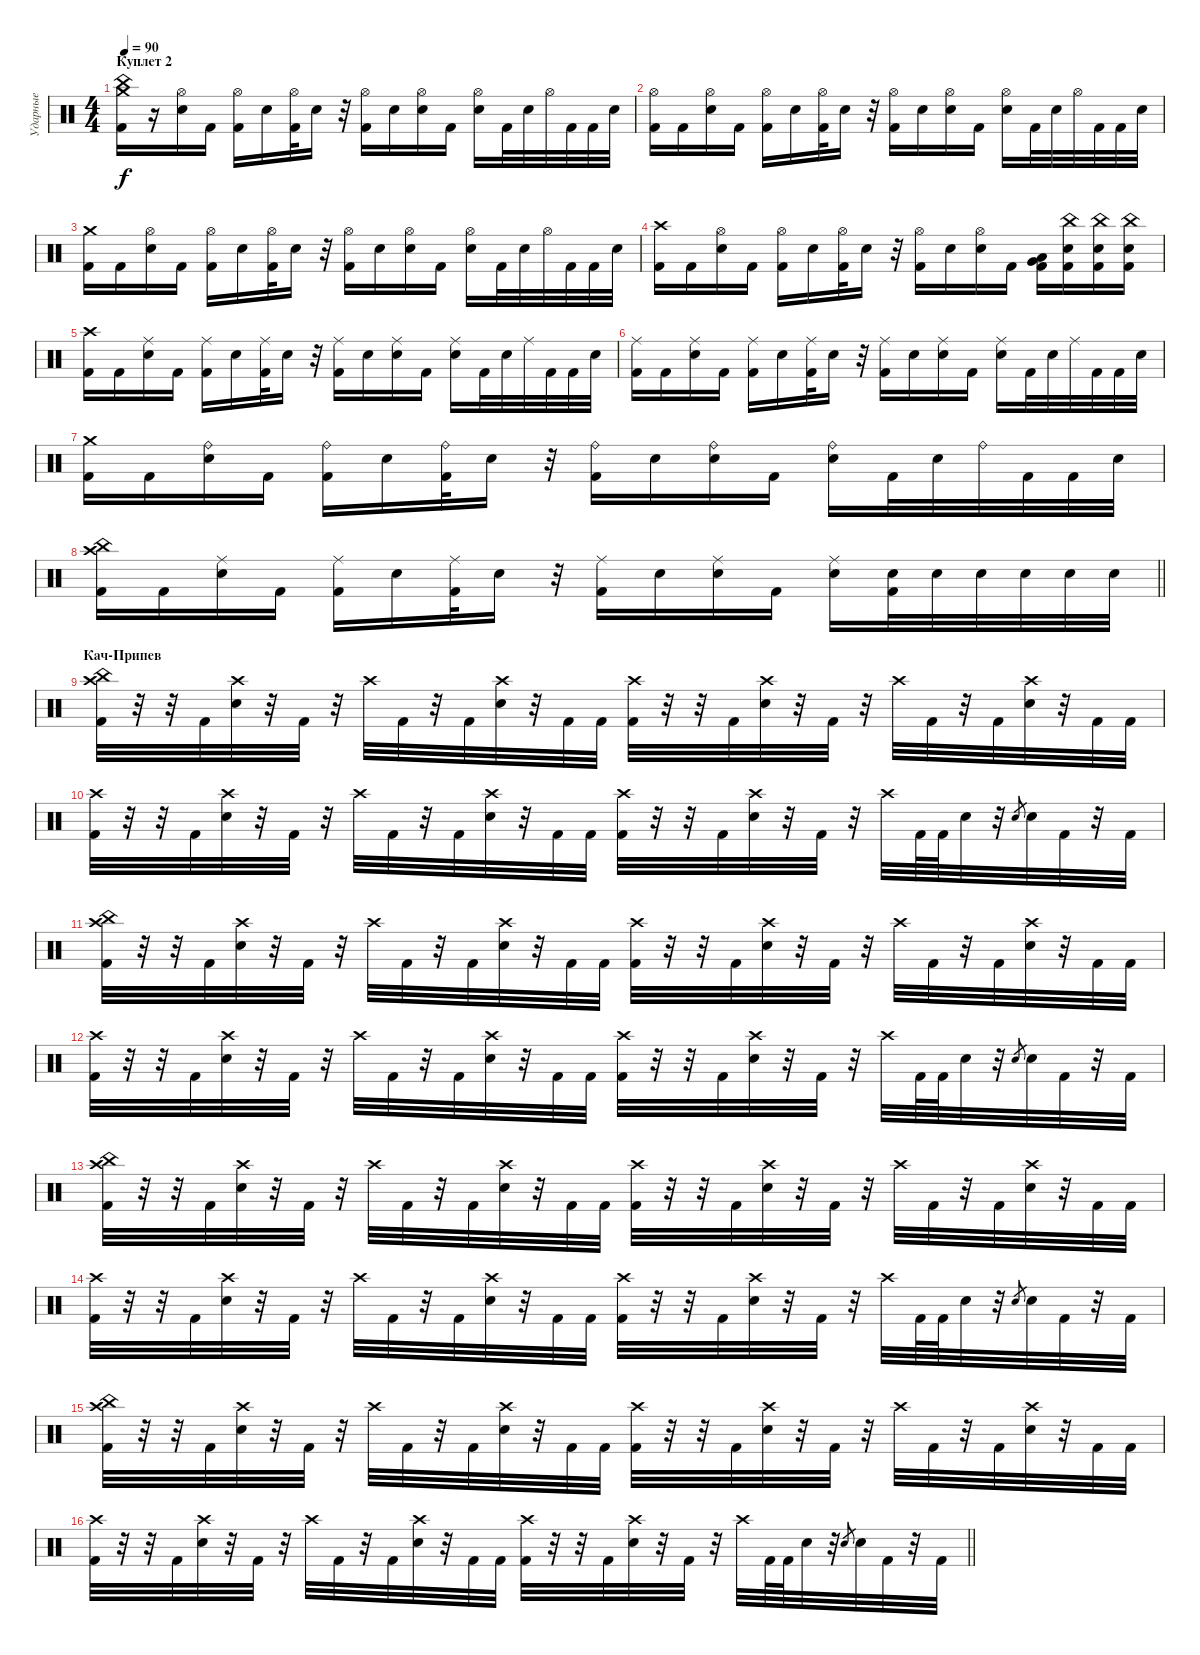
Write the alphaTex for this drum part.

\track ("Ударные" "Ударные") {instrument percussion}
\staff {score}
\articulation defaults
\ts (4 4)
\section ("" "Куплет 2")
\tempo 90
\clef neutral
\ks c
("Crash medium (hit)" "China (hit)" "Kick (hit) 2").16{dy f} r.16 ("Hi-Hat (open)" "Electric Snare (hit)").16 "Kick (hit) 2".16 ("Hi-Hat (open)" "Kick (hit) 2").16 "Electric Snare (hit)".16 ("Hi-Hat (open)" "Kick (hit) 2").32 "Electric Snare (hit)".16 r.32 ("Hi-Hat (open)" "Kick (hit) 2").16 "Electric Snare (hit)".16 ("Hi-Hat (open)" "Electric Snare (hit)").16 "Kick (hit) 2".16 ("Hi-Hat (open)" "Electric Snare (hit)").16 "Kick (hit) 2".32 "Electric Snare (hit)".32 "Hi-Hat (open)".32 "Kick (hit) 2".32 "Kick (hit) 2".32 "Electric Snare (hit)".32 |
("Hi-Hat (open)" "Kick (hit) 2").16 "Kick (hit) 2".16 ("Hi-Hat (open)" "Electric Snare (hit)").16 "Kick (hit) 2".16 ("Hi-Hat (open)" "Kick (hit) 2").16 "Electric Snare (hit)".16 ("Hi-Hat (open)" "Kick (hit) 2").32 "Electric Snare (hit)".16 r.32 ("Hi-Hat (open)" "Kick (hit) 2").16 "Electric Snare (hit)".16 ("Hi-Hat (open)" "Electric Snare (hit)").16 "Kick (hit) 2".16 ("Hi-Hat (open)" "Electric Snare (hit)").16 "Kick (hit) 2".32 "Electric Snare (hit)".32 "Hi-Hat (open)".32 "Kick (hit) 2".32 "Kick (hit) 2".32 "Electric Snare (hit)".32 |
("Crash medium (hit)" "Kick (hit) 2").16 "Kick (hit) 2".16 ("Hi-Hat (open)" "Electric Snare (hit)").16 "Kick (hit) 2".16 ("Hi-Hat (open)" "Kick (hit) 2").16 "Electric Snare (hit)".16 ("Hi-Hat (open)" "Kick (hit) 2").32 "Electric Snare (hit)".16 r.32 ("Hi-Hat (open)" "Kick (hit) 2").16 "Electric Snare (hit)".16 ("Hi-Hat (open)" "Electric Snare (hit)").16 "Kick (hit) 2".16 ("Hi-Hat (open)" "Electric Snare (hit)").16 "Kick (hit) 2".32 "Electric Snare (hit)".32 "Hi-Hat (open)".32 "Kick (hit) 2".32 "Kick (hit) 2".32 "Electric Snare (hit)".32 |
("Crash high (hit)" "Kick (hit) 2").16 "Kick (hit) 2".16 ("Hi-Hat (open)" "Electric Snare (hit)").16 "Kick (hit) 2".16 ("Hi-Hat (open)" "Kick (hit) 2").16 "Electric Snare (hit)".16 ("Hi-Hat (open)" "Kick (hit) 2").32 "Electric Snare (hit)".16 r.32 ("Hi-Hat (open)" "Kick (hit) 2").16 "Electric Snare (hit)".16 ("Hi-Hat (open)" "Electric Snare (hit)").16 "Kick (hit) 2".16 ("Low Tom (hit)" "Very Low Tom (hit)" "Kick (hit) 2").16 ("China (hit)" "Electric Snare (hit)" "Kick (hit) 2").16 ("China (hit)" "Electric Snare (hit)" "Kick (hit) 2").16 ("China (hit)" "Electric Snare (hit)" "Kick (hit) 2").16 |
("Crash high (hit)" "Kick (hit) 2").16 "Kick (hit) 2".16 ("Ride (middle)" "Electric Snare (hit)").16 "Kick (hit) 2".16 ("Ride (middle)" "Kick (hit) 2").16 "Electric Snare (hit)".16 ("Ride (middle)" "Kick (hit) 2").32 "Electric Snare (hit)".16 r.32 ("Ride (middle)" "Kick (hit) 2").16 "Electric Snare (hit)".16 ("Ride (middle)" "Electric Snare (hit)").16 "Kick (hit) 2".16 ("Ride (middle)" "Electric Snare (hit)").16 "Kick (hit) 2".32 "Electric Snare (hit)".32 "Ride (middle)".32 "Kick (hit) 2".32 "Kick (hit) 2".32 "Electric Snare (hit)".32 |
("Ride (middle)" "Kick (hit) 2").16 "Kick (hit) 2".16 ("Ride (middle)" "Electric Snare (hit)").16 "Kick (hit) 2".16 ("Ride (middle)" "Kick (hit) 2").16 "Electric Snare (hit)".16 ("Ride (middle)" "Kick (hit) 2").32 "Electric Snare (hit)".16 r.32 ("Ride (middle)" "Kick (hit) 2").16 "Electric Snare (hit)".16 ("Ride (middle)" "Electric Snare (hit)").16 "Kick (hit) 2".16 ("Ride (middle)" "Electric Snare (hit)").16 "Kick (hit) 2".32 "Electric Snare (hit)".32 "Ride (middle)".32 "Kick (hit) 2".32 "Kick (hit) 2".32 "Electric Snare (hit)".32 |
("Crash medium (hit)" "Kick (hit) 2").16 "Kick (hit) 2".16 ("Ride (bell)" "Electric Snare (hit)").16 "Kick (hit) 2".16 ("Ride (bell)" "Kick (hit) 2").16 "Electric Snare (hit)".16 ("Ride (bell)" "Kick (hit) 2").32 "Electric Snare (hit)".16 r.32 ("Ride (bell)" "Kick (hit) 2").16 "Electric Snare (hit)".16 ("Ride (bell)" "Electric Snare (hit)").16 "Kick (hit) 2".16 ("Ride (bell)" "Electric Snare (hit)").16 "Kick (hit) 2".32 "Electric Snare (hit)".32 "Ride (bell)".32 "Kick (hit) 2".32 "Kick (hit) 2".32 "Electric Snare (hit)".32 |
\barLineRight lightlight
("Crash high (hit)" "China (hit)" "Kick (hit) 2").16 "Kick (hit) 2".16 ("Ride (middle)" "Electric Snare (hit)").16 "Kick (hit) 2".16 ("Ride (middle)" "Kick (hit) 2").16 "Electric Snare (hit)".16 ("Ride (middle)" "Kick (hit) 2").32 "Electric Snare (hit)".16 r.32 ("Ride (middle)" "Kick (hit) 2").16 "Electric Snare (hit)".16 ("Ride (middle)" "Electric Snare (hit)").16 "Kick (hit) 2".16 ("Ride (middle)" "Electric Snare (hit)").16 ("Electric Snare (hit)" "Kick (hit) 2").32 "Electric Snare (hit)".32 "Electric Snare (hit)".32 "Electric Snare (hit)".32 "Electric Snare (hit)".32 "Electric Snare (hit)".32 |
\section ("" "Кач-Припев")
("China (hit)" "Crash high (hit)" "Kick (hit) 2").32 r.32 r.32 "Kick (hit) 2".32 ("Crash high (hit)" "Electric Snare (hit)").32 r.32 "Kick (hit) 2".32 r.32 "Crash high (hit)".32 "Kick (hit) 2".32 r.32 "Kick (hit) 2".32 ("Crash high (hit)" "Electric Snare (hit)").32 r.32 "Kick (hit) 2".32 "Kick (hit) 2".32 ("Crash high (hit)" "Kick (hit) 2").32 r.32 r.32 "Kick (hit) 2".32 ("Crash high (hit)" "Electric Snare (hit)").32 r.32 "Kick (hit) 2".32 r.32 "Crash high (hit)".32 "Kick (hit) 2".32 r.32 "Kick (hit) 2".32 ("Crash high (hit)" "Electric Snare (hit)").32 r.32 "Kick (hit) 2".32 "Kick (hit) 2".32 |
("Crash high (hit)" "Kick (hit) 2").32 r.32 r.32 "Kick (hit) 2".32 ("Crash high (hit)" "Electric Snare (hit)").32 r.32 "Kick (hit) 2".32 r.32 "Crash high (hit)".32 "Kick (hit) 2".32 r.32 "Kick (hit) 2".32 ("Crash high (hit)" "Electric Snare (hit)").32 r.32 "Kick (hit) 2".32 "Kick (hit) 2".32 ("Crash high (hit)" "Kick (hit) 2").32 r.32 r.32 "Kick (hit) 2".32 ("Crash high (hit)" "Electric Snare (hit)").32 r.32 "Kick (hit) 2".32 r.32 "Crash high (hit)".32 "Kick (hit) 2".64 "Kick (hit) 2".64 "Electric Snare (hit)".32 r.32 "Electric Snare (hit)".8{gr} "Electric Snare (hit)".32 "Kick (hit) 2".32 r.32 "Kick (hit) 2".32 |
("China (hit)" "Crash high (hit)" "Kick (hit) 2").32 r.32 r.32 "Kick (hit) 2".32 ("Crash high (hit)" "Electric Snare (hit)").32 r.32 "Kick (hit) 2".32 r.32 "Crash high (hit)".32 "Kick (hit) 2".32 r.32 "Kick (hit) 2".32 ("Crash high (hit)" "Electric Snare (hit)").32 r.32 "Kick (hit) 2".32 "Kick (hit) 2".32 ("Crash high (hit)" "Kick (hit) 2").32 r.32 r.32 "Kick (hit) 2".32 ("Crash high (hit)" "Electric Snare (hit)").32 r.32 "Kick (hit) 2".32 r.32 "Crash high (hit)".32 "Kick (hit) 2".32 r.32 "Kick (hit) 2".32 ("Crash high (hit)" "Electric Snare (hit)").32 r.32 "Kick (hit) 2".32 "Kick (hit) 2".32 |
("Crash high (hit)" "Kick (hit) 2").32 r.32 r.32 "Kick (hit) 2".32 ("Crash high (hit)" "Electric Snare (hit)").32 r.32 "Kick (hit) 2".32 r.32 "Crash high (hit)".32 "Kick (hit) 2".32 r.32 "Kick (hit) 2".32 ("Crash high (hit)" "Electric Snare (hit)").32 r.32 "Kick (hit) 2".32 "Kick (hit) 2".32 ("Crash high (hit)" "Kick (hit) 2").32 r.32 r.32 "Kick (hit) 2".32 ("Crash high (hit)" "Electric Snare (hit)").32 r.32 "Kick (hit) 2".32 r.32 "Crash high (hit)".32 "Kick (hit) 2".64 "Kick (hit) 2".64 "Electric Snare (hit)".32 r.32 "Electric Snare (hit)".8{gr} "Electric Snare (hit)".32 "Kick (hit) 2".32 r.32 "Kick (hit) 2".32 |
("China (hit)" "Crash high (hit)" "Kick (hit) 2").32 r.32 r.32 "Kick (hit) 2".32 ("Crash high (hit)" "Electric Snare (hit)").32 r.32 "Kick (hit) 2".32 r.32 "Crash high (hit)".32 "Kick (hit) 2".32 r.32 "Kick (hit) 2".32 ("Crash high (hit)" "Electric Snare (hit)").32 r.32 "Kick (hit) 2".32 "Kick (hit) 2".32 ("Crash high (hit)" "Kick (hit) 2").32 r.32 r.32 "Kick (hit) 2".32 ("Crash high (hit)" "Electric Snare (hit)").32 r.32 "Kick (hit) 2".32 r.32 "Crash high (hit)".32 "Kick (hit) 2".32 r.32 "Kick (hit) 2".32 ("Crash high (hit)" "Electric Snare (hit)").32 r.32 "Kick (hit) 2".32 "Kick (hit) 2".32 |
("Crash high (hit)" "Kick (hit) 2").32 r.32 r.32 "Kick (hit) 2".32 ("Crash high (hit)" "Electric Snare (hit)").32 r.32 "Kick (hit) 2".32 r.32 "Crash high (hit)".32 "Kick (hit) 2".32 r.32 "Kick (hit) 2".32 ("Crash high (hit)" "Electric Snare (hit)").32 r.32 "Kick (hit) 2".32 "Kick (hit) 2".32 ("Crash high (hit)" "Kick (hit) 2").32 r.32 r.32 "Kick (hit) 2".32 ("Crash high (hit)" "Electric Snare (hit)").32 r.32 "Kick (hit) 2".32 r.32 "Crash high (hit)".32 "Kick (hit) 2".64 "Kick (hit) 2".64 "Electric Snare (hit)".32 r.32 "Electric Snare (hit)".8{gr} "Electric Snare (hit)".32 "Kick (hit) 2".32 r.32 "Kick (hit) 2".32 |
("China (hit)" "Crash high (hit)" "Kick (hit) 2").32 r.32 r.32 "Kick (hit) 2".32 ("Crash high (hit)" "Electric Snare (hit)").32 r.32 "Kick (hit) 2".32 r.32 "Crash high (hit)".32 "Kick (hit) 2".32 r.32 "Kick (hit) 2".32 ("Crash high (hit)" "Electric Snare (hit)").32 r.32 "Kick (hit) 2".32 "Kick (hit) 2".32 ("Crash high (hit)" "Kick (hit) 2").32 r.32 r.32 "Kick (hit) 2".32 ("Crash high (hit)" "Electric Snare (hit)").32 r.32 "Kick (hit) 2".32 r.32 "Crash high (hit)".32 "Kick (hit) 2".32 r.32 "Kick (hit) 2".32 ("Crash high (hit)" "Electric Snare (hit)").32 r.32 "Kick (hit) 2".32 "Kick (hit) 2".32 |
\barLineRight lightlight
("Crash high (hit)" "Kick (hit) 2").32 r.32 r.32 "Kick (hit) 2".32 ("Crash high (hit)" "Electric Snare (hit)").32 r.32 "Kick (hit) 2".32 r.32 "Crash high (hit)".32 "Kick (hit) 2".32 r.32 "Kick (hit) 2".32 ("Crash high (hit)" "Electric Snare (hit)").32 r.32 "Kick (hit) 2".32 "Kick (hit) 2".32 ("Crash high (hit)" "Kick (hit) 2").32 r.32 r.32 "Kick (hit) 2".32 ("Crash high (hit)" "Electric Snare (hit)").32 r.32 "Kick (hit) 2".32 r.32 "Crash high (hit)".32 "Kick (hit) 2".64 "Kick (hit) 2".64 "Electric Snare (hit)".32 r.32 "Electric Snare (hit)".8{gr} "Electric Snare (hit)".32 "Kick (hit) 2".32 r.32 "Kick (hit) 2".32
